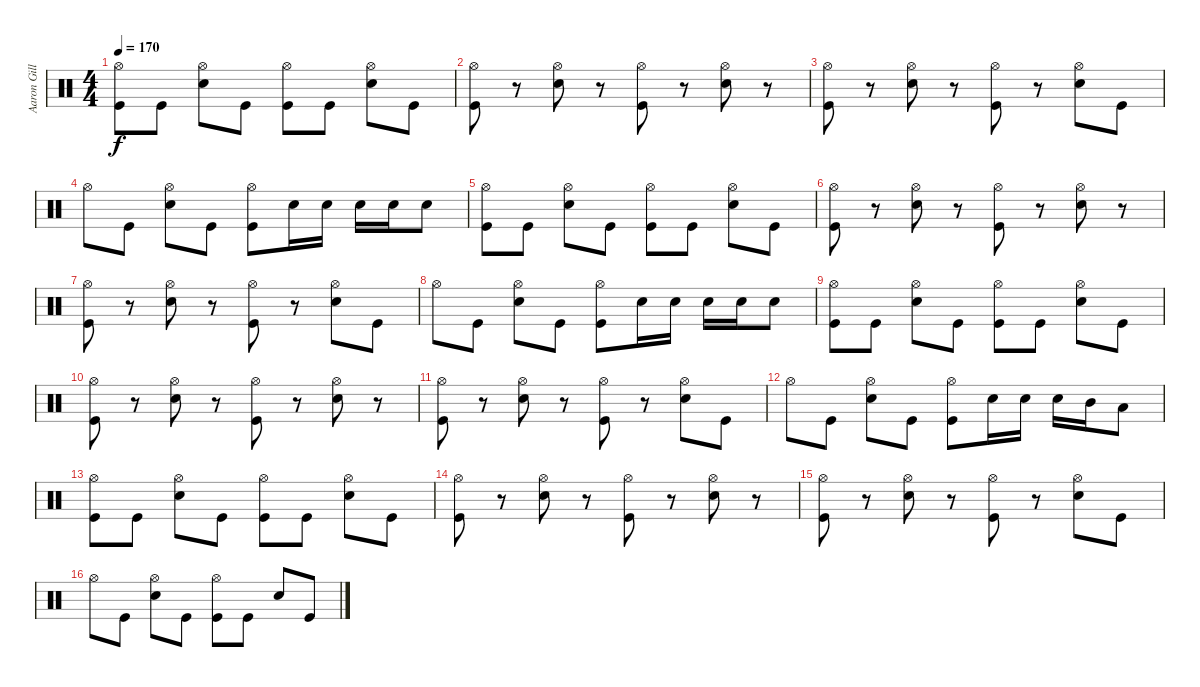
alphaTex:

\track ("Aaron Gillepsie (Drums)" "Aaron Gill") {instrument percussion}
\staff {score}
\articulation defaults
\ts (4 4)
\tempo 170
\clef neutral
\ks c
("Hi-Hat (open)" "Kick (hit)").8{dy f} "Kick (hit)".8 ("Hi-Hat (open)" "Electric Snare (hit)").8 "Kick (hit)".8 ("Hi-Hat (open)" "Kick (hit)").8 "Kick (hit)".8 ("Hi-Hat (open)" "Electric Snare (hit)").8 "Kick (hit)".8 |
("Hi-Hat (open)" "Kick (hit)").8 r.8 ("Hi-Hat (open)" "Electric Snare (hit)").8 r.8 ("Hi-Hat (open)" "Kick (hit)").8 r.8 ("Hi-Hat (open)" "Electric Snare (hit)").8 r.8 |
("Hi-Hat (open)" "Kick (hit)").8 r.8 ("Hi-Hat (open)" "Electric Snare (hit)").8 r.8 ("Hi-Hat (open)" "Kick (hit)").8 r.8 ("Hi-Hat (open)" "Electric Snare (hit)").8 "Kick (hit)".8 |
"Hi-Hat (open)".8 "Kick (hit)".8 ("Hi-Hat (open)" "Electric Snare (hit)").8 "Kick (hit)".8 ("Hi-Hat (open)" "Kick (hit)").8 "Electric Snare (hit)".16 "Electric Snare (hit)".16 "Electric Snare (hit)".16 "Electric Snare (hit)".16 "Electric Snare (hit)".8 |
("Hi-Hat (open)" "Kick (hit)").8 "Kick (hit)".8 ("Hi-Hat (open)" "Electric Snare (hit)").8 "Kick (hit)".8 ("Hi-Hat (open)" "Kick (hit)").8 "Kick (hit)".8 ("Hi-Hat (open)" "Electric Snare (hit)").8 "Kick (hit)".8 |
("Hi-Hat (open)" "Kick (hit)").8 r.8 ("Hi-Hat (open)" "Electric Snare (hit)").8 r.8 ("Hi-Hat (open)" "Kick (hit)").8 r.8 ("Hi-Hat (open)" "Electric Snare (hit)").8 r.8 |
("Hi-Hat (open)" "Kick (hit)").8 r.8 ("Hi-Hat (open)" "Electric Snare (hit)").8 r.8 ("Hi-Hat (open)" "Kick (hit)").8 r.8 ("Hi-Hat (open)" "Electric Snare (hit)").8 "Kick (hit)".8 |
"Hi-Hat (open)".8 "Kick (hit)".8 ("Hi-Hat (open)" "Electric Snare (hit)").8 "Kick (hit)".8 ("Hi-Hat (open)" "Kick (hit)").8 "Electric Snare (hit)".16 "Electric Snare (hit)".16 "Electric Snare (hit)".16 "Electric Snare (hit)".16 "Electric Snare (hit)".8 |
("Hi-Hat (open)" "Kick (hit)").8 "Kick (hit)".8 ("Hi-Hat (open)" "Electric Snare (hit)").8 "Kick (hit)".8 ("Hi-Hat (open)" "Kick (hit)").8 "Kick (hit)".8 ("Hi-Hat (open)" "Electric Snare (hit)").8 "Kick (hit)".8 |
("Hi-Hat (open)" "Kick (hit)").8 r.8 ("Hi-Hat (open)" "Electric Snare (hit)").8 r.8 ("Hi-Hat (open)" "Kick (hit)").8 r.8 ("Hi-Hat (open)" "Electric Snare (hit)").8 r.8 |
("Hi-Hat (open)" "Kick (hit)").8 r.8 ("Hi-Hat (open)" "Electric Snare (hit)").8 r.8 ("Hi-Hat (open)" "Kick (hit)").8 r.8 ("Hi-Hat (open)" "Electric Snare (hit)").8 "Kick (hit)".8 |
"Hi-Hat (open)".8 "Kick (hit)".8 ("Hi-Hat (open)" "Electric Snare (hit)").8 "Kick (hit)".8 ("Hi-Hat (open)" "Kick (hit)").8 "Electric Snare (hit)".16 "Electric Snare (hit)".16 "Electric Snare (hit)".16 "Mid Tom (hit)".16 "Low Tom (hit)".8 |
("Hi-Hat (open)" "Kick (hit)").8 "Kick (hit)".8 ("Hi-Hat (open)" "Electric Snare (hit)").8 "Kick (hit)".8 ("Hi-Hat (open)" "Kick (hit)").8 "Kick (hit)".8 ("Hi-Hat (open)" "Electric Snare (hit)").8 "Kick (hit)".8 |
("Hi-Hat (open)" "Kick (hit)").8 r.8 ("Hi-Hat (open)" "Electric Snare (hit)").8 r.8 ("Hi-Hat (open)" "Kick (hit)").8 r.8 ("Hi-Hat (open)" "Electric Snare (hit)").8 r.8 |
("Hi-Hat (open)" "Kick (hit)").8 r.8 ("Hi-Hat (open)" "Electric Snare (hit)").8 r.8 ("Hi-Hat (open)" "Kick (hit)").8 r.8 ("Hi-Hat (open)" "Electric Snare (hit)").8 "Kick (hit)".8 |
"Hi-Hat (open)".8 "Kick (hit)".8 ("Hi-Hat (open)" "Electric Snare (hit)").8 "Kick (hit)".8 ("Hi-Hat (open)" "Kick (hit)").8 "Kick (hit)".8 "Electric Snare (hit)".8 "Kick (hit)".8
